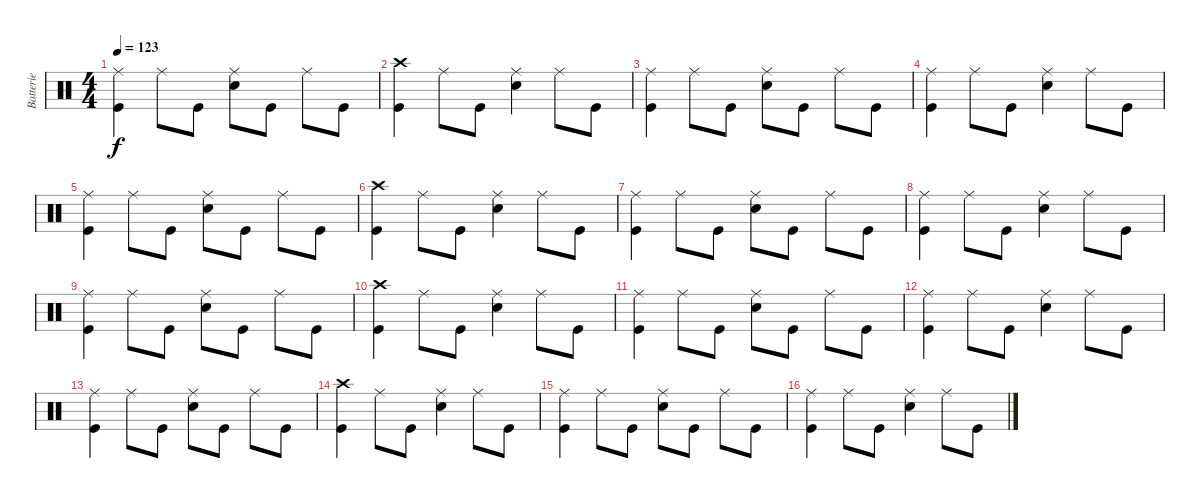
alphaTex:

\track ("Batterie" "Batterie") {instrument percussion}
\staff {score}
\articulation defaults
\ts (4 4)
\tempo 123
\clef neutral
\ks c
("Ride (middle)" "Kick (hit)").4{dy f} "Ride (middle)".8 "Kick (hit)".8 ("Snare (hit) 2" "Ride (middle)").8 "Kick (hit)".8 "Ride (middle)".8 "Kick (hit)".8 |
("Kick (hit)" "Crash high (hit)").4 "Ride (middle)".8 "Kick (hit)".8 ("Ride (middle)" "Snare (hit) 2").4 "Ride (middle)".8 "Kick (hit)".8 |
("Ride (middle)" "Kick (hit)").4 "Ride (middle)".8 "Kick (hit)".8 ("Snare (hit) 2" "Ride (middle)").8 "Kick (hit)".8 "Ride (middle)".8 "Kick (hit)".8 |
("Kick (hit)" "Ride (middle)").4 "Ride (middle)".8 "Kick (hit)".8 ("Ride (middle)" "Snare (hit) 2").4 "Ride (middle)".8 "Kick (hit)".8 |
("Ride (middle)" "Kick (hit)").4 "Ride (middle)".8 "Kick (hit)".8 ("Snare (hit) 2" "Ride (middle)").8 "Kick (hit)".8 "Ride (middle)".8 "Kick (hit)".8 |
("Kick (hit)" "Crash high (hit)").4 "Ride (middle)".8 "Kick (hit)".8 ("Ride (middle)" "Snare (hit) 2").4 "Ride (middle)".8 "Kick (hit)".8 |
("Ride (middle)" "Kick (hit)").4 "Ride (middle)".8 "Kick (hit)".8 ("Snare (hit) 2" "Ride (middle)").8 "Kick (hit)".8 "Ride (middle)".8 "Kick (hit)".8 |
("Kick (hit)" "Ride (middle)").4 "Ride (middle)".8 "Kick (hit)".8 ("Ride (middle)" "Snare (hit) 2").4 "Ride (middle)".8 "Kick (hit)".8 |
("Ride (middle)" "Kick (hit)").4 "Ride (middle)".8 "Kick (hit)".8 ("Snare (hit) 2" "Ride (middle)").8 "Kick (hit)".8 "Ride (middle)".8 "Kick (hit)".8 |
("Kick (hit)" "Crash high (hit)").4 "Ride (middle)".8 "Kick (hit)".8 ("Ride (middle)" "Snare (hit) 2").4 "Ride (middle)".8 "Kick (hit)".8 |
("Ride (middle)" "Kick (hit)").4 "Ride (middle)".8 "Kick (hit)".8 ("Snare (hit) 2" "Ride (middle)").8 "Kick (hit)".8 "Ride (middle)".8 "Kick (hit)".8 |
("Kick (hit)" "Ride (middle)").4 "Ride (middle)".8 "Kick (hit)".8 ("Ride (middle)" "Snare (hit) 2").4 "Ride (middle)".8 "Kick (hit)".8 |
("Ride (middle)" "Kick (hit)").4 "Ride (middle)".8 "Kick (hit)".8 ("Snare (hit) 2" "Ride (middle)").8 "Kick (hit)".8 "Ride (middle)".8 "Kick (hit)".8 |
("Kick (hit)" "Crash high (hit)").4 "Ride (middle)".8 "Kick (hit)".8 ("Ride (middle)" "Snare (hit) 2").4 "Ride (middle)".8 "Kick (hit)".8 |
("Ride (middle)" "Kick (hit)").4 "Ride (middle)".8 "Kick (hit)".8 ("Snare (hit) 2" "Ride (middle)").8 "Kick (hit)".8 "Ride (middle)".8 "Kick (hit)".8 |
("Kick (hit)" "Ride (middle)").4 "Ride (middle)".8 "Kick (hit)".8 ("Ride (middle)" "Snare (hit) 2").4 "Ride (middle)".8 "Kick (hit)".8
